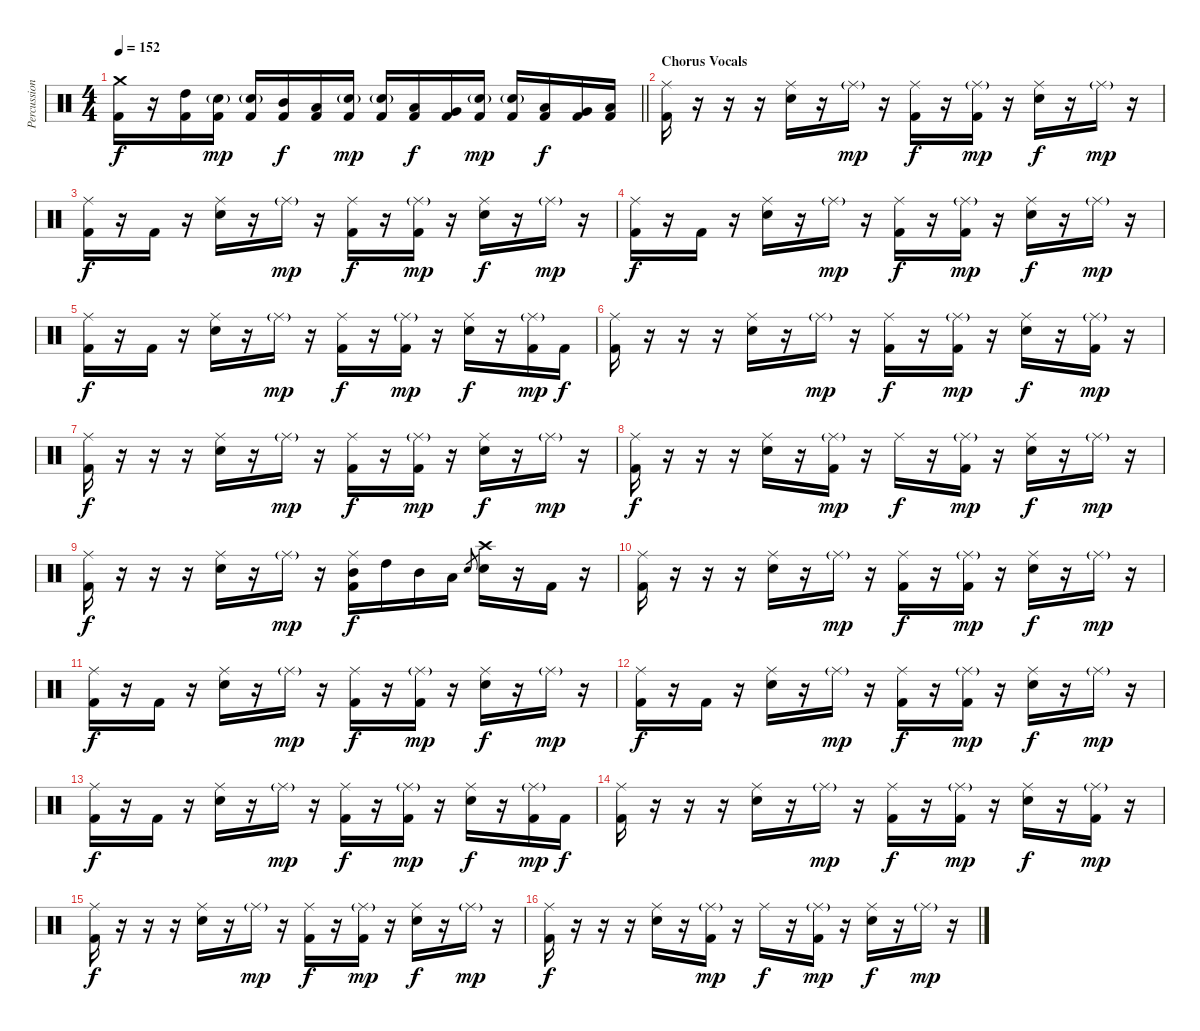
\track ("Percussion" "Percussion") {instrument percussion}
\staff {score}
\articulation defaults
\ts (4 4)
\tempo 152
\clef neutral
\barLineRight lightlight
\ks c
("Crash medium (hit)" "Kick (hit) 2").16{dy f} r.16 ("High Tom (hit)" "Kick (hit) 2").16 ("Snare (hit) 2"{g} "Kick (hit) 2").16{dy mp} ("Snare (hit) 2"{g} "Kick (hit) 2").16 ("Mid Tom (hit)" "Kick (hit) 2").16{dy f} ("Low Tom (hit)" "Kick (hit) 2").16 ("Snare (hit) 2"{g} "Kick (hit) 2").16{dy mp} ("Snare (hit) 2"{g} "Kick (hit) 2").16 ("Low Tom (hit)" "Kick (hit) 2").16{dy f} ("Very Low Tom (hit)" "Kick (hit) 2").16 ("Snare (hit) 2"{g} "Kick (hit) 2").16{dy mp} ("Snare (hit) 2"{g} "Kick (hit) 2").16 ("Low Tom (hit)" "Kick (hit) 2").16{dy f} ("Very Low Tom (hit)" "Kick (hit) 2").16 ("Low Floor Tom (hit)" "Kick (hit) 2").16 |
\section ("" "Chorus Vocals")
("Ride (middle)" "Kick (hit) 2").16 r.16 r.16 r.16 ("Ride (middle)" "Snare (hit) 2").16 r.16 "Ride (middle)"{g}.16{dy mp} r.16 ("Ride (middle)" "Kick (hit) 2").16{dy f} r.16 ("Ride (middle)"{g} "Kick (hit) 2").16{dy mp} r.16 ("Ride (middle)" "Snare (hit) 2").16{dy f} r.16 "Ride (middle)"{g}.16{dy mp} r.16 |
("Ride (middle)" "Kick (hit) 2").16{dy f} r.16 "Kick (hit) 2".16 r.16 ("Ride (middle)" "Snare (hit) 2").16 r.16 "Ride (middle)"{g}.16{dy mp} r.16 ("Ride (middle)" "Kick (hit) 2").16{dy f} r.16 ("Ride (middle)"{g} "Kick (hit) 2").16{dy mp} r.16 ("Ride (middle)" "Snare (hit) 2").16{dy f} r.16 "Ride (middle)"{g}.16{dy mp} r.16 |
("Ride (middle)" "Kick (hit) 2").16{dy f} r.16 "Kick (hit) 2".16 r.16 ("Ride (middle)" "Snare (hit) 2").16 r.16 "Ride (middle)"{g}.16{dy mp} r.16 ("Ride (middle)" "Kick (hit) 2").16{dy f} r.16 ("Ride (middle)"{g} "Kick (hit) 2").16{dy mp} r.16 ("Ride (middle)" "Snare (hit) 2").16{dy f} r.16 "Ride (middle)"{g}.16{dy mp} r.16 |
("Ride (middle)" "Kick (hit) 2").16{dy f} r.16 "Kick (hit) 2".16 r.16 ("Ride (middle)" "Snare (hit) 2").16 r.16 "Ride (middle)"{g}.16{dy mp} r.16 ("Ride (middle)" "Kick (hit) 2").16{dy f} r.16 ("Ride (middle)"{g} "Kick (hit) 2").16{dy mp} r.16 ("Ride (middle)" "Snare (hit) 2").16{dy f} r.16 ("Ride (middle)"{g} "Kick (hit) 2").16{dy mp} "Kick (hit) 2".16{dy f} |
("Ride (middle)" "Kick (hit) 2").16 r.16 r.16 r.16 ("Ride (middle)" "Snare (hit) 2").16 r.16 "Ride (middle)"{g}.16{dy mp} r.16 ("Ride (middle)" "Kick (hit) 2").16{dy f} r.16 ("Ride (middle)"{g} "Kick (hit) 2").16{dy mp} r.16 ("Ride (middle)" "Snare (hit) 2").16{dy f} r.16 ("Ride (middle)"{g} "Kick (hit) 2").16{dy mp} r.16 |
("Ride (middle)" "Kick (hit) 2").16{dy f} r.16 r.16 r.16 ("Ride (middle)" "Snare (hit) 2").16 r.16 "Ride (middle)"{g}.16{dy mp} r.16 ("Ride (middle)" "Kick (hit) 2").16{dy f} r.16 ("Ride (middle)"{g} "Kick (hit) 2").16{dy mp} r.16 ("Ride (middle)" "Snare (hit) 2").16{dy f} r.16 "Ride (middle)"{g}.16{dy mp} r.16 |
("Ride (middle)" "Kick (hit) 2").16{dy f} r.16 r.16 r.16 ("Ride (middle)" "Snare (hit) 2").16 r.16 ("Ride (middle)"{g} "Kick (hit) 2").16{dy mp} r.16 "Ride (middle)".16{dy f} r.16 ("Ride (middle)"{g} "Kick (hit) 2").16{dy mp} r.16 ("Ride (middle)" "Snare (hit) 2").16{dy f} r.16 "Ride (middle)"{g}.16{dy mp} r.16 |
("Ride (middle)" "Kick (hit) 2").16{dy f} r.16 r.16 r.16 ("Ride (middle)" "Snare (hit) 2").16 r.16 "Ride (middle)"{g}.16{dy mp} r.16 ("Ride (middle)" "Mid Tom (hit)" "Kick (hit) 2").16{dy f} "High Tom (hit)".16 "Mid Tom (hit)".16 "Low Tom (hit)".16 "Snare (hit) 2".8{gr} ("Crash high (hit)" "Snare (hit) 2").16 r.16 "Kick (hit) 2".16 r.16 |
("Ride (middle)" "Kick (hit) 2").16 r.16 r.16 r.16 ("Ride (middle)" "Snare (hit) 2").16 r.16 "Ride (middle)"{g}.16{dy mp} r.16 ("Ride (middle)" "Kick (hit) 2").16{dy f} r.16 ("Ride (middle)"{g} "Kick (hit) 2").16{dy mp} r.16 ("Ride (middle)" "Snare (hit) 2").16{dy f} r.16 "Ride (middle)"{g}.16{dy mp} r.16 |
("Ride (middle)" "Kick (hit) 2").16{dy f} r.16 "Kick (hit) 2".16 r.16 ("Ride (middle)" "Snare (hit) 2").16 r.16 "Ride (middle)"{g}.16{dy mp} r.16 ("Ride (middle)" "Kick (hit) 2").16{dy f} r.16 ("Ride (middle)"{g} "Kick (hit) 2").16{dy mp} r.16 ("Ride (middle)" "Snare (hit) 2").16{dy f} r.16 "Ride (middle)"{g}.16{dy mp} r.16 |
("Ride (middle)" "Kick (hit) 2").16{dy f} r.16 "Kick (hit) 2".16 r.16 ("Ride (middle)" "Snare (hit) 2").16 r.16 "Ride (middle)"{g}.16{dy mp} r.16 ("Ride (middle)" "Kick (hit) 2").16{dy f} r.16 ("Ride (middle)"{g} "Kick (hit) 2").16{dy mp} r.16 ("Ride (middle)" "Snare (hit) 2").16{dy f} r.16 "Ride (middle)"{g}.16{dy mp} r.16 |
("Ride (middle)" "Kick (hit) 2").16{dy f} r.16 "Kick (hit) 2".16 r.16 ("Ride (middle)" "Snare (hit) 2").16 r.16 "Ride (middle)"{g}.16{dy mp} r.16 ("Ride (middle)" "Kick (hit) 2").16{dy f} r.16 ("Ride (middle)"{g} "Kick (hit) 2").16{dy mp} r.16 ("Ride (middle)" "Snare (hit) 2").16{dy f} r.16 ("Ride (middle)"{g} "Kick (hit) 2").16{dy mp} "Kick (hit) 2".16{dy f} |
("Ride (middle)" "Kick (hit) 2").16 r.16 r.16 r.16 ("Ride (middle)" "Snare (hit) 2").16 r.16 "Ride (middle)"{g}.16{dy mp} r.16 ("Ride (middle)" "Kick (hit) 2").16{dy f} r.16 ("Ride (middle)"{g} "Kick (hit) 2").16{dy mp} r.16 ("Ride (middle)" "Snare (hit) 2").16{dy f} r.16 ("Ride (middle)"{g} "Kick (hit) 2").16{dy mp} r.16 |
("Ride (middle)" "Kick (hit) 2").16{dy f} r.16 r.16 r.16 ("Ride (middle)" "Snare (hit) 2").16 r.16 "Ride (middle)"{g}.16{dy mp} r.16 ("Ride (middle)" "Kick (hit) 2").16{dy f} r.16 ("Ride (middle)"{g} "Kick (hit) 2").16{dy mp} r.16 ("Ride (middle)" "Snare (hit) 2").16{dy f} r.16 "Ride (middle)"{g}.16{dy mp} r.16 |
("Ride (middle)" "Kick (hit) 2").16{dy f} r.16 r.16 r.16 ("Ride (middle)" "Snare (hit) 2").16 r.16 ("Ride (middle)"{g} "Kick (hit) 2").16{dy mp} r.16 "Ride (middle)".16{dy f} r.16 ("Ride (middle)"{g} "Kick (hit) 2").16{dy mp} r.16 ("Ride (middle)" "Snare (hit) 2").16{dy f} r.16 "Ride (middle)"{g}.16{dy mp} r.16
